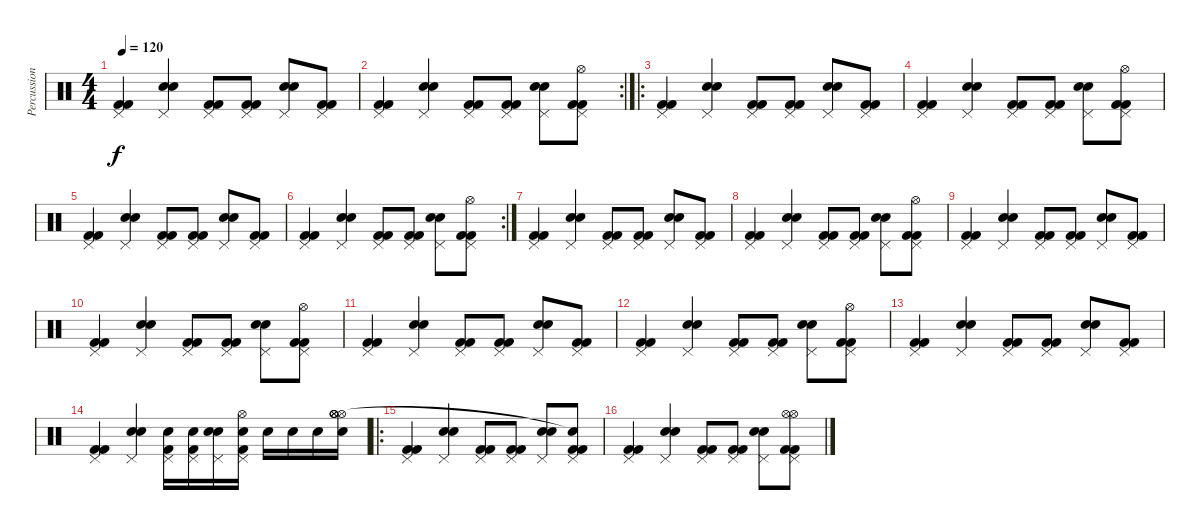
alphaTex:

\track ("Percussion" "Percussion") {instrument percussion}
\staff {score}
\articulation defaults
\ts (4 4)
\tempo 120
\clef neutral
\ks c
("Kick (hit) 2" "Kick (hit) 2" "Pedal Hi-Hat (hit)").4{dy f} ("Snare (hit) 2" "Snare (hit) 2" "Pedal Hi-Hat (hit)").4 ("Kick (hit) 2" "Kick (hit) 2" "Pedal Hi-Hat (hit)").8 ("Kick (hit) 2" "Kick (hit) 2" "Pedal Hi-Hat (hit)").8 ("Snare (hit) 2" "Snare (hit) 2" "Pedal Hi-Hat (hit)").8 ("Kick (hit) 2" "Kick (hit) 2" "Pedal Hi-Hat (hit)").8 |
\rc 2
("Kick (hit) 2" "Kick (hit) 2" "Pedal Hi-Hat (hit)").4 ("Snare (hit) 2" "Snare (hit) 2" "Pedal Hi-Hat (hit)").4 ("Kick (hit) 2" "Kick (hit) 2" "Pedal Hi-Hat (hit)").8 ("Kick (hit) 2" "Kick (hit) 2" "Pedal Hi-Hat (hit)").8 ("Snare (hit) 2" "Snare (hit) 2" "Pedal Hi-Hat (hit)").8 ("Kick (hit) 2" "Kick (hit) 2" "Hi-Hat (open)" "Pedal Hi-Hat (hit)").8 |
\ro
("Kick (hit) 2" "Kick (hit) 2" "Pedal Hi-Hat (hit)").4 ("Snare (hit) 2" "Snare (hit) 2" "Pedal Hi-Hat (hit)").4 ("Kick (hit) 2" "Kick (hit) 2" "Pedal Hi-Hat (hit)").8 ("Kick (hit) 2" "Kick (hit) 2" "Pedal Hi-Hat (hit)").8 ("Snare (hit) 2" "Snare (hit) 2" "Pedal Hi-Hat (hit)").8 ("Kick (hit) 2" "Kick (hit) 2" "Pedal Hi-Hat (hit)").8 |
("Kick (hit) 2" "Kick (hit) 2" "Pedal Hi-Hat (hit)").4 ("Snare (hit) 2" "Snare (hit) 2" "Pedal Hi-Hat (hit)").4 ("Kick (hit) 2" "Kick (hit) 2" "Pedal Hi-Hat (hit)").8 ("Kick (hit) 2" "Kick (hit) 2" "Pedal Hi-Hat (hit)").8 ("Snare (hit) 2" "Snare (hit) 2" "Pedal Hi-Hat (hit)").8 ("Kick (hit) 2" "Kick (hit) 2" "Hi-Hat (open)" "Pedal Hi-Hat (hit)").8 |
("Kick (hit) 2" "Kick (hit) 2" "Pedal Hi-Hat (hit)").4 ("Snare (hit) 2" "Snare (hit) 2" "Pedal Hi-Hat (hit)").4 ("Kick (hit) 2" "Kick (hit) 2" "Pedal Hi-Hat (hit)").8 ("Kick (hit) 2" "Kick (hit) 2" "Pedal Hi-Hat (hit)").8 ("Snare (hit) 2" "Snare (hit) 2" "Pedal Hi-Hat (hit)").8 ("Kick (hit) 2" "Kick (hit) 2" "Pedal Hi-Hat (hit)").8 |
\rc 2
("Kick (hit) 2" "Kick (hit) 2" "Pedal Hi-Hat (hit)").4 ("Snare (hit) 2" "Snare (hit) 2" "Pedal Hi-Hat (hit)").4 ("Kick (hit) 2" "Kick (hit) 2" "Pedal Hi-Hat (hit)").8 ("Kick (hit) 2" "Kick (hit) 2" "Pedal Hi-Hat (hit)").8 ("Snare (hit) 2" "Snare (hit) 2" "Pedal Hi-Hat (hit)").8 ("Kick (hit) 2" "Kick (hit) 2" "Hi-Hat (open)" "Pedal Hi-Hat (hit)").8 |
("Kick (hit) 2" "Kick (hit) 2" "Pedal Hi-Hat (hit)").4 ("Snare (hit) 2" "Snare (hit) 2" "Pedal Hi-Hat (hit)").4 ("Kick (hit) 2" "Kick (hit) 2" "Pedal Hi-Hat (hit)").8 ("Kick (hit) 2" "Kick (hit) 2" "Pedal Hi-Hat (hit)").8 ("Snare (hit) 2" "Snare (hit) 2" "Pedal Hi-Hat (hit)").8 ("Kick (hit) 2" "Kick (hit) 2" "Pedal Hi-Hat (hit)").8 |
("Kick (hit) 2" "Kick (hit) 2" "Pedal Hi-Hat (hit)").4 ("Snare (hit) 2" "Snare (hit) 2" "Pedal Hi-Hat (hit)").4 ("Kick (hit) 2" "Kick (hit) 2" "Pedal Hi-Hat (hit)").8 ("Kick (hit) 2" "Kick (hit) 2" "Pedal Hi-Hat (hit)").8 ("Snare (hit) 2" "Snare (hit) 2" "Pedal Hi-Hat (hit)").8 ("Kick (hit) 2" "Kick (hit) 2" "Hi-Hat (open)" "Pedal Hi-Hat (hit)").8 |
("Kick (hit) 2" "Kick (hit) 2" "Pedal Hi-Hat (hit)").4 ("Snare (hit) 2" "Snare (hit) 2" "Pedal Hi-Hat (hit)").4 ("Kick (hit) 2" "Kick (hit) 2" "Pedal Hi-Hat (hit)").8 ("Kick (hit) 2" "Kick (hit) 2" "Pedal Hi-Hat (hit)").8 ("Snare (hit) 2" "Snare (hit) 2" "Pedal Hi-Hat (hit)").8 ("Kick (hit) 2" "Kick (hit) 2" "Pedal Hi-Hat (hit)").8 |
("Kick (hit) 2" "Kick (hit) 2" "Pedal Hi-Hat (hit)").4 ("Snare (hit) 2" "Snare (hit) 2" "Pedal Hi-Hat (hit)").4 ("Kick (hit) 2" "Kick (hit) 2" "Pedal Hi-Hat (hit)").8 ("Kick (hit) 2" "Kick (hit) 2" "Pedal Hi-Hat (hit)").8 ("Snare (hit) 2" "Snare (hit) 2" "Pedal Hi-Hat (hit)").8 ("Kick (hit) 2" "Kick (hit) 2" "Hi-Hat (open)" "Pedal Hi-Hat (hit)").8 |
("Kick (hit) 2" "Kick (hit) 2" "Pedal Hi-Hat (hit)").4 ("Snare (hit) 2" "Snare (hit) 2" "Pedal Hi-Hat (hit)").4 ("Kick (hit) 2" "Kick (hit) 2" "Pedal Hi-Hat (hit)").8 ("Kick (hit) 2" "Kick (hit) 2" "Pedal Hi-Hat (hit)").8 ("Snare (hit) 2" "Snare (hit) 2" "Pedal Hi-Hat (hit)").8 ("Kick (hit) 2" "Kick (hit) 2" "Pedal Hi-Hat (hit)").8 |
("Kick (hit) 2" "Kick (hit) 2" "Pedal Hi-Hat (hit)").4 ("Snare (hit) 2" "Snare (hit) 2" "Pedal Hi-Hat (hit)").4 ("Kick (hit) 2" "Kick (hit) 2" "Pedal Hi-Hat (hit)").8 ("Kick (hit) 2" "Kick (hit) 2" "Pedal Hi-Hat (hit)").8 ("Snare (hit) 2" "Snare (hit) 2" "Pedal Hi-Hat (hit)").8 ("Kick (hit) 2" "Kick (hit) 2" "Hi-Hat (open)" "Pedal Hi-Hat (hit)").8 |
("Kick (hit) 2" "Kick (hit) 2" "Pedal Hi-Hat (hit)").4 ("Snare (hit) 2" "Snare (hit) 2" "Pedal Hi-Hat (hit)").4 ("Kick (hit) 2" "Kick (hit) 2" "Pedal Hi-Hat (hit)").8 ("Kick (hit) 2" "Kick (hit) 2" "Pedal Hi-Hat (hit)").8 ("Snare (hit) 2" "Snare (hit) 2" "Pedal Hi-Hat (hit)").8 ("Kick (hit) 2" "Kick (hit) 2" "Pedal Hi-Hat (hit)").8 |
("Kick (hit) 2" "Kick (hit) 2" "Pedal Hi-Hat (hit)").4 ("Snare (hit) 2" "Snare (hit) 2" "Pedal Hi-Hat (hit)").4 ("Snare (hit) 2" "Kick (hit) 2" "Pedal Hi-Hat (hit)").16 ("Snare (hit) 2" "Kick (hit) 2" "Pedal Hi-Hat (hit)").16 ("Snare (hit) 2" "Snare (hit) 2" "Pedal Hi-Hat (hit)").16 ("Snare (hit) 2" "Kick (hit) 2" "Hi-Hat (open)" "Pedal Hi-Hat (hit)").16 "Snare (hit) 2".16 "Snare (hit) 2".16 "Snare (hit) 2".16 ("Snare (hit) 2" "Hi-Hat (open)" "Hi-Hat (open)" "Hi-Hat (open)" "Hi-Hat (open)").16 |
\ro
("Kick (hit) 2" "Kick (hit) 2" "Pedal Hi-Hat (hit)").4 ("Snare (hit) 2" "Snare (hit) 2" "Pedal Hi-Hat (hit)").4 ("Kick (hit) 2" "Kick (hit) 2" "Pedal Hi-Hat (hit)").8 ("Kick (hit) 2" "Kick (hit) 2" "Pedal Hi-Hat (hit)").8 ("Snare (hit) 2" "Snare (hit) 2" "Pedal Hi-Hat (hit)").8 ("Kick (hit) 2" "Kick (hit) 2" "Pedal Hi-Hat (hit)" "Snare (hit)"{t}).8 |
("Kick (hit) 2" "Kick (hit) 2" "Pedal Hi-Hat (hit)").4 ("Snare (hit) 2" "Snare (hit) 2" "Pedal Hi-Hat (hit)").4 ("Kick (hit) 2" "Kick (hit) 2" "Pedal Hi-Hat (hit)").8 ("Kick (hit) 2" "Kick (hit) 2" "Pedal Hi-Hat (hit)").8 ("Snare (hit) 2" "Snare (hit) 2" "Pedal Hi-Hat (hit)").8 ("Kick (hit) 2" "Kick (hit) 2" "Hi-Hat (open)" "Pedal Hi-Hat (hit)" "Hi-Hat (open)").8
